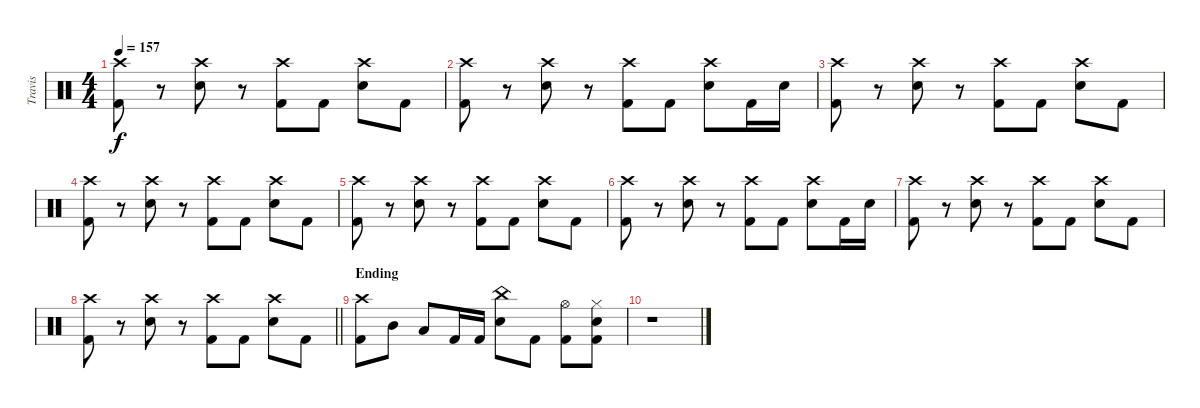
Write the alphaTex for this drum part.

\track ("Travis" "Travis") {instrument percussion}
\staff {score}
\articulation defaults
\ts (4 4)
\tempo 157
\clef neutral
\ks c
("Crash high (hit)" "Kick (hit) 2").8{dy f} r.8 ("Crash high (hit)" "Electric Snare (hit)").8 r.8 ("Crash high (hit)" "Kick (hit) 2").8 "Kick (hit) 2".8 ("Crash high (hit)" "Electric Snare (hit)").8 "Kick (hit) 2".8 |
("Crash high (hit)" "Kick (hit) 2").8 r.8 ("Crash high (hit)" "Electric Snare (hit)").8 r.8 ("Crash high (hit)" "Kick (hit) 2").8 "Kick (hit) 2".8 ("Crash high (hit)" "Electric Snare (hit)").8 "Kick (hit) 2".16 "Electric Snare (hit)".16 |
("Crash high (hit)" "Kick (hit) 2").8 r.8 ("Crash high (hit)" "Electric Snare (hit)").8 r.8 ("Crash high (hit)" "Kick (hit) 2").8 "Kick (hit) 2".8 ("Crash high (hit)" "Electric Snare (hit)").8 "Kick (hit) 2".8 |
("Crash high (hit)" "Kick (hit) 2").8 r.8 ("Crash high (hit)" "Electric Snare (hit)").8 r.8 ("Crash high (hit)" "Kick (hit) 2").8 "Kick (hit) 2".8 ("Crash high (hit)" "Electric Snare (hit)").8 "Kick (hit) 2".8 |
("Crash high (hit)" "Kick (hit) 2").8 r.8 ("Crash high (hit)" "Electric Snare (hit)").8 r.8 ("Crash high (hit)" "Kick (hit) 2").8 "Kick (hit) 2".8 ("Crash high (hit)" "Electric Snare (hit)").8 "Kick (hit) 2".8 |
("Crash high (hit)" "Kick (hit) 2").8 r.8 ("Crash high (hit)" "Electric Snare (hit)").8 r.8 ("Crash high (hit)" "Kick (hit) 2").8 "Kick (hit) 2".8 ("Crash high (hit)" "Electric Snare (hit)").8 "Kick (hit) 2".16 "Electric Snare (hit)".16 |
("Crash high (hit)" "Kick (hit) 2").8 r.8 ("Crash high (hit)" "Electric Snare (hit)").8 r.8 ("Crash high (hit)" "Kick (hit) 2").8 "Kick (hit) 2".8 ("Crash high (hit)" "Electric Snare (hit)").8 "Kick (hit) 2".8 |
\barLineRight lightlight
("Crash high (hit)" "Kick (hit) 2").8 r.8 ("Crash high (hit)" "Electric Snare (hit)").8 r.8 ("Crash high (hit)" "Kick (hit) 2").8 "Kick (hit) 2".8 ("Crash high (hit)" "Electric Snare (hit)").8 "Kick (hit) 2".8 |
\section ("" "Ending")
("Crash high (hit)" "Kick (hit) 2").8 "Mid Tom (hit)".8 "Low Tom (hit)".8 "Kick (hit) 2".16 "Kick (hit) 2".16 ("China (hit)" "Electric Snare (hit)").8 "Kick (hit) 2".8 ("Hi-Hat (open)" "Kick (hit) 2").8 ("Hi-Hat (closed)" "Electric Snare (hit)" "Kick (hit) 2").8 |
r.1
